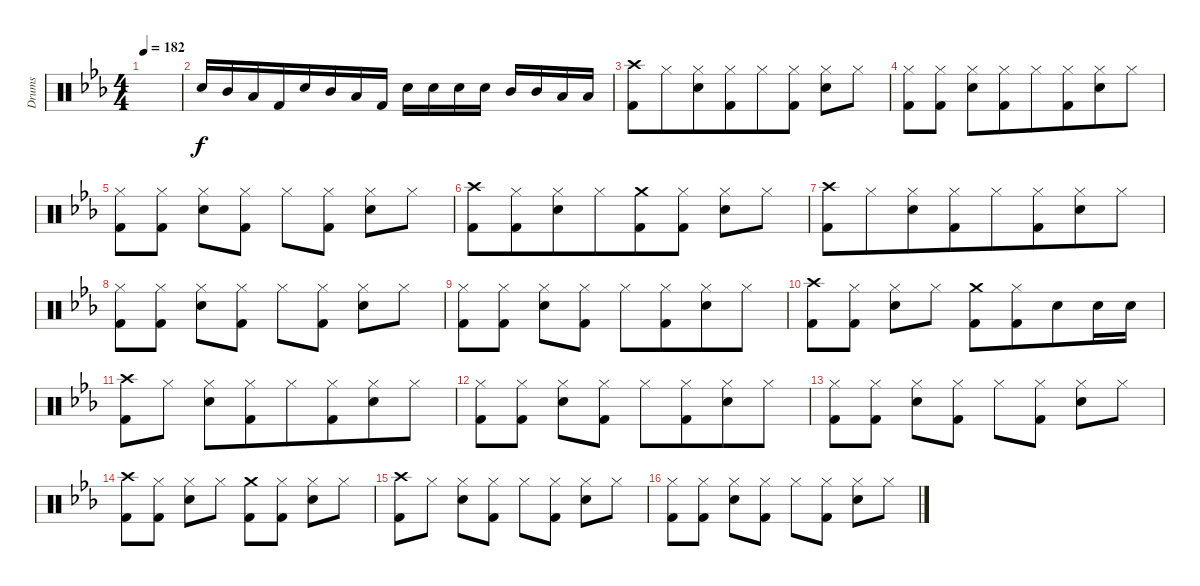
\track ("Drums" "Drums") {instrument percussion}
\staff {score}
\articulation defaults
\ts (4 4)
\tempo 182
\clef neutral
\ks eb
|
"Snare (hit) 2".16 "Mid Tom (hit)".16 "Low Tom (hit)".16 "Kick (hit) 2".16{beam merge} "Snare (hit) 2".16 "Mid Tom (hit)".16{beam merge} "Low Tom (hit)".16{beam merge} "Kick (hit) 2".16 "Snare (hit) 2".16{beam merge} "Snare (hit) 2".16 "Snare (hit) 2".16{beam merge} "Snare (hit) 2".16 "Mid Tom (hit)".16 "Mid Tom (hit)".16 "Low Tom (hit)".16{beam merge} "Low Tom (hit)".16 |
("Crash high (hit)" "Kick (hit) 2").8{beam merge} "Hi-Hat (closed)".8{beam merge} ("Hi-Hat (closed)" "Snare (hit) 2").8 ("Hi-Hat (closed)" "Kick (hit) 2").8{beam merge} "Hi-Hat (closed)".8{beam merge} ("Hi-Hat (closed)" "Kick (hit) 2").8 ("Hi-Hat (closed)" "Snare (hit) 2").8 "Hi-Hat (closed)".8 |
("Hi-Hat (closed)" "Kick (hit) 2").8 ("Hi-Hat (closed)" "Kick (hit) 2").8 ("Hi-Hat (closed)" "Snare (hit) 2").8 ("Hi-Hat (closed)" "Kick (hit) 2").8{beam merge} "Hi-Hat (closed)".8 ("Hi-Hat (closed)" "Kick (hit) 2").8{beam merge} ("Hi-Hat (closed)" "Snare (hit) 2").8 "Hi-Hat (closed)".8 |
("Hi-Hat (closed)" "Kick (hit) 2").8{beam merge} ("Hi-Hat (closed)" "Kick (hit) 2").8 ("Hi-Hat (closed)" "Snare (hit) 2").8{beam merge} ("Hi-Hat (closed)" "Kick (hit) 2").8 "Hi-Hat (closed)".8 ("Hi-Hat (closed)" "Kick (hit) 2").8 ("Hi-Hat (closed)" "Snare (hit) 2").8 "Hi-Hat (closed)".8 |
("Crash high (hit)" "Kick (hit) 2").8{beam merge} ("Hi-Hat (closed)" "Kick (hit) 2").8{beam merge} ("Hi-Hat (closed)" "Snare (hit) 2").8{beam merge} "Hi-Hat (closed)".8{beam merge} ("Crash medium (hit)" "Kick (hit) 2").8{beam merge} ("Hi-Hat (closed)" "Kick (hit) 2").8 ("Hi-Hat (closed)" "Snare (hit) 2").8{beam merge} "Hi-Hat (closed)".8 |
("Crash high (hit)" "Kick (hit) 2").8{beam merge} "Hi-Hat (closed)".8{beam merge} ("Hi-Hat (closed)" "Snare (hit) 2").8{beam merge} ("Hi-Hat (closed)" "Kick (hit) 2").8{beam merge} "Hi-Hat (closed)".8{beam merge} ("Hi-Hat (closed)" "Kick (hit) 2").8{beam merge} ("Hi-Hat (closed)" "Snare (hit) 2").8 "Hi-Hat (closed)".8 |
("Hi-Hat (closed)" "Kick (hit) 2").8 ("Hi-Hat (closed)" "Kick (hit) 2").8 ("Hi-Hat (closed)" "Snare (hit) 2").8 ("Hi-Hat (closed)" "Kick (hit) 2").8 "Hi-Hat (closed)".8 ("Hi-Hat (closed)" "Kick (hit) 2").8 ("Hi-Hat (closed)" "Snare (hit) 2").8 "Hi-Hat (closed)".8 |
("Hi-Hat (closed)" "Kick (hit) 2").8{beam merge} ("Hi-Hat (closed)" "Kick (hit) 2").8 ("Hi-Hat (closed)" "Snare (hit) 2").8 ("Hi-Hat (closed)" "Kick (hit) 2").8 "Hi-Hat (closed)".8 ("Hi-Hat (closed)" "Kick (hit) 2").8{beam merge} ("Hi-Hat (closed)" "Snare (hit) 2").8 "Hi-Hat (closed)".8 |
("Crash high (hit)" "Kick (hit) 2").8 ("Hi-Hat (closed)" "Kick (hit) 2").8 ("Hi-Hat (closed)" "Snare (hit) 2").8 "Hi-Hat (closed)".8 ("Crash medium (hit)" "Kick (hit) 2").8 ("Hi-Hat (closed)" "Kick (hit) 2").8{beam merge} "Snare (hit) 2".8{beam merge} "Snare (hit) 2".16 "Snare (hit) 2".16 |
("Crash high (hit)" "Kick (hit) 2").8{beam merge} "Hi-Hat (closed)".8 ("Hi-Hat (closed)" "Snare (hit) 2").8{beam merge} ("Hi-Hat (closed)" "Kick (hit) 2").8{beam merge} "Hi-Hat (closed)".8{beam merge} ("Hi-Hat (closed)" "Kick (hit) 2").8{beam merge} ("Hi-Hat (closed)" "Snare (hit) 2").8{beam merge} "Hi-Hat (closed)".8 |
("Hi-Hat (closed)" "Kick (hit) 2").8{beam merge} ("Hi-Hat (closed)" "Kick (hit) 2").8 ("Hi-Hat (closed)" "Snare (hit) 2").8 ("Hi-Hat (closed)" "Kick (hit) 2").8 "Hi-Hat (closed)".8 ("Hi-Hat (closed)" "Kick (hit) 2").8{beam merge} ("Hi-Hat (closed)" "Snare (hit) 2").8 "Hi-Hat (closed)".8 |
("Hi-Hat (closed)" "Kick (hit) 2").8 ("Hi-Hat (closed)" "Kick (hit) 2").8 ("Hi-Hat (closed)" "Snare (hit) 2").8 ("Hi-Hat (closed)" "Kick (hit) 2").8 "Hi-Hat (closed)".8 ("Hi-Hat (closed)" "Kick (hit) 2").8 ("Hi-Hat (closed)" "Snare (hit) 2").8 "Hi-Hat (closed)".8 |
("Crash high (hit)" "Kick (hit) 2").8 ("Hi-Hat (closed)" "Kick (hit) 2").8 ("Hi-Hat (closed)" "Snare (hit) 2").8 "Hi-Hat (closed)".8 ("Crash medium (hit)" "Kick (hit) 2").8 ("Hi-Hat (closed)" "Kick (hit) 2").8 ("Hi-Hat (closed)" "Snare (hit) 2").8 "Hi-Hat (closed)".8 |
("Crash high (hit)" "Kick (hit) 2").8 "Hi-Hat (closed)".8 ("Hi-Hat (closed)" "Snare (hit) 2").8 ("Hi-Hat (closed)" "Kick (hit) 2").8 "Hi-Hat (closed)".8 ("Hi-Hat (closed)" "Kick (hit) 2").8 ("Hi-Hat (closed)" "Snare (hit) 2").8 "Hi-Hat (closed)".8 |
("Hi-Hat (closed)" "Kick (hit) 2").8 ("Hi-Hat (closed)" "Kick (hit) 2").8 ("Hi-Hat (closed)" "Snare (hit) 2").8 ("Hi-Hat (closed)" "Kick (hit) 2").8 "Hi-Hat (closed)".8 ("Hi-Hat (closed)" "Kick (hit) 2").8 ("Hi-Hat (closed)" "Snare (hit) 2").8 "Hi-Hat (closed)".8
